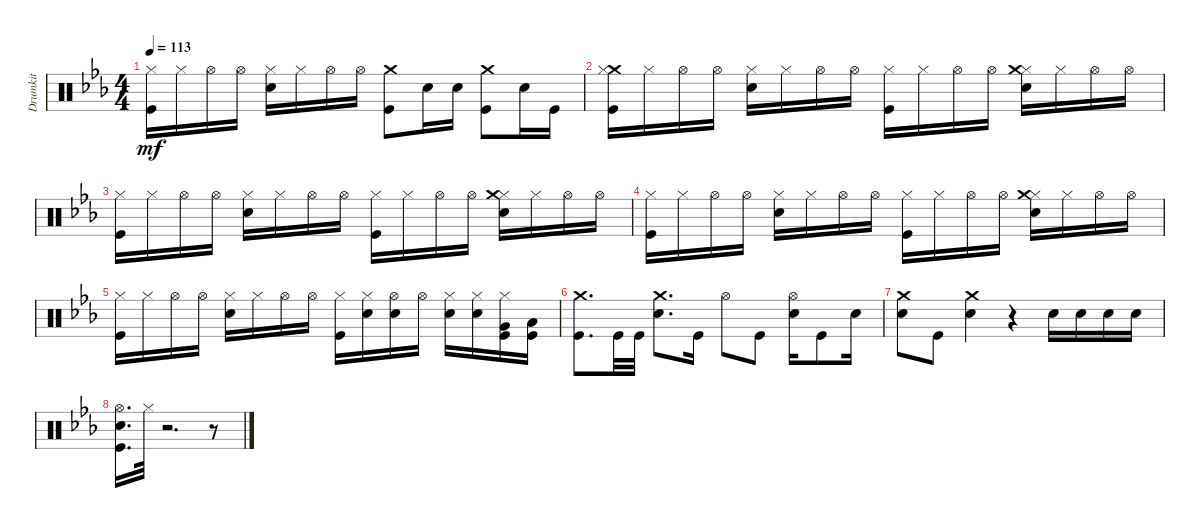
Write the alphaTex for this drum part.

\track ("Drumkit" "Drumkit") {instrument percussion}
\staff {score}
\articulation defaults
\ts (4 4)
\tempo 113
\clef neutral
\ks eb
("Hi-Hat (closed)" "Kick (hit)").16{dy mf} "Hi-Hat (closed)".16 "Hi-Hat (open)".16 "Hi-Hat (open)".16 ("Hi-Hat (closed)" "Snare (hit) 2").16 "Hi-Hat (closed)".16 "Hi-Hat (open)".16 "Hi-Hat (open)".16 ("Kick (hit)" "Crash medium (hit)").8 "Snare (hit) 2".16 "Snare (hit) 2".16 ("Kick (hit)" "Crash medium (hit)").8 "Snare (hit) 2".16 "Kick (hit)".16 |
("Crash medium (hit)" "Hi-Hat (closed)" "Kick (hit)").16 "Hi-Hat (closed)".16 "Hi-Hat (open)".16 "Hi-Hat (open)".16 ("Hi-Hat (closed)" "Snare (hit) 2").16 "Hi-Hat (closed)".16 "Hi-Hat (open)".16 "Hi-Hat (open)".16 ("Hi-Hat (closed)" "Kick (hit)").16 "Hi-Hat (closed)".16 "Hi-Hat (open)".16 "Hi-Hat (open)".16 ("Hi-Hat (closed)" "Snare (hit) 2" "Crash medium (hit)").16 "Hi-Hat (closed)".16 "Hi-Hat (open)".16 "Hi-Hat (open)".16 |
("Hi-Hat (closed)" "Kick (hit)").16 "Hi-Hat (closed)".16 "Hi-Hat (open)".16 "Hi-Hat (open)".16 ("Hi-Hat (closed)" "Snare (hit) 2").16 "Hi-Hat (closed)".16 "Hi-Hat (open)".16 "Hi-Hat (open)".16 ("Hi-Hat (closed)" "Kick (hit)").16 "Hi-Hat (closed)".16 "Hi-Hat (open)".16 "Hi-Hat (open)".16 ("Hi-Hat (closed)" "Snare (hit) 2" "Crash medium (hit)").16 "Hi-Hat (closed)".16 "Hi-Hat (open)".16 "Hi-Hat (open)".16 |
("Hi-Hat (closed)" "Kick (hit)").16 "Hi-Hat (closed)".16 "Hi-Hat (open)".16 "Hi-Hat (open)".16 ("Hi-Hat (closed)" "Snare (hit) 2").16 "Hi-Hat (closed)".16 "Hi-Hat (open)".16 "Hi-Hat (open)".16 ("Hi-Hat (closed)" "Kick (hit)").16 "Hi-Hat (closed)".16 "Hi-Hat (open)".16 "Hi-Hat (open)".16 ("Hi-Hat (closed)" "Snare (hit) 2" "Crash medium (hit)").16 "Hi-Hat (closed)".16 "Hi-Hat (open)".16 "Hi-Hat (open)".16 |
("Hi-Hat (closed)" "Kick (hit)").16 "Hi-Hat (closed)".16 "Hi-Hat (open)".16 "Hi-Hat (open)".16 ("Hi-Hat (closed)" "Snare (hit) 2").16 "Hi-Hat (closed)".16 "Hi-Hat (open)".16 "Hi-Hat (open)".16 ("Hi-Hat (closed)" "Kick (hit)").16 ("Hi-Hat (closed)" "Snare (hit) 2").16 ("Hi-Hat (open)" "Snare (hit) 2").16 "Hi-Hat (open)".16 ("Hi-Hat (closed)" "Snare (hit) 2").16 ("Hi-Hat (closed)" "Snare (hit) 2").16 ("Hi-Hat (closed)" "Very Low Tom (hit)" "Kick (hit)").16 ("Low Floor Tom (hit)" "Kick (hit)").16 |
("Kick (hit)" "Crash medium (hit)").8{d} "Kick (hit)".32 "Kick (hit)".32 ("Snare (hit) 2" "Crash medium (hit)").8{d} "Kick (hit)".16 "Hi-Hat (open)".8 "Kick (hit)".8 ("Hi-Hat (open)" "Snare (hit) 2").16 "Kick (hit)".8 "Snare (hit) 2".16 |
("Snare (hit) 2" "Crash medium (hit)").8 "Kick (hit)".8 ("Snare (hit) 2" "Crash medium (hit)").4 r.4 "Snare (hit) 2".16 "Snare (hit) 2".16 "Snare (hit) 2".16 "Snare (hit) 2".16 |
("Snare (hit) 2" "Hi-Hat (open)" "Kick (hit)").16{d} "Hi-Hat (closed)".32 r.2{d} r.8
